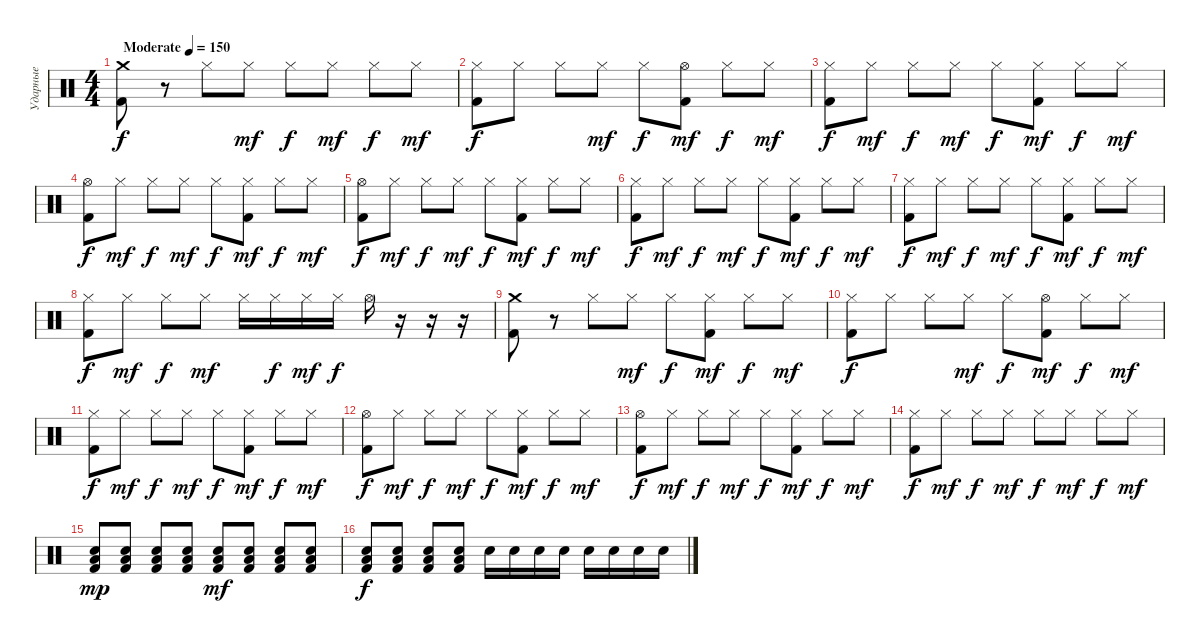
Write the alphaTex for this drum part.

\track ("Ударные" "Ударные") {instrument percussion}
\staff {score}
\articulation defaults
\ts (4 4)
\tempo (150 "Moderate")
\clef neutral
\ks c
("Crash medium (hit)" "Kick (hit) 2").8{dy f} r.8 "Hi-Hat (closed)".8 "Hi-Hat (closed)".8{dy mf} "Hi-Hat (closed)".8{dy f} "Hi-Hat (closed)".8{dy mf} "Hi-Hat (closed)".8{dy f} "Hi-Hat (closed)".8{dy mf} |
("Hi-Hat (closed)" "Kick (hit) 2").8{dy f} "Hi-Hat (closed)".8 "Hi-Hat (closed)".8 "Hi-Hat (closed)".8{dy mf} "Hi-Hat (closed)".8{dy f} ("Hi-Hat (open)" "Kick (hit) 2").8{dy mf} "Hi-Hat (closed)".8{dy f} "Hi-Hat (closed)".8{dy mf} |
("Hi-Hat (closed)" "Kick (hit) 2").8{dy f} "Hi-Hat (closed)".8{dy mf} "Hi-Hat (closed)".8{dy f} "Hi-Hat (closed)".8{dy mf} "Hi-Hat (closed)".8{dy f} ("Hi-Hat (closed)" "Kick (hit) 2").8{dy mf} "Hi-Hat (closed)".8{dy f} "Hi-Hat (closed)".8{dy mf} |
("Hi-Hat (open)" "Kick (hit) 2").8{dy f} "Hi-Hat (closed)".8{dy mf} "Hi-Hat (closed)".8{dy f} "Hi-Hat (closed)".8{dy mf} "Hi-Hat (closed)".8{dy f} ("Hi-Hat (closed)" "Kick (hit) 2").8{dy mf} "Hi-Hat (closed)".8{dy f} "Hi-Hat (closed)".8{dy mf} |
("Hi-Hat (open)" "Kick (hit) 2").8{dy f} "Hi-Hat (closed)".8{dy mf} "Hi-Hat (closed)".8{dy f} "Hi-Hat (closed)".8{dy mf} "Hi-Hat (closed)".8{dy f} ("Hi-Hat (closed)" "Kick (hit) 2").8{dy mf} "Hi-Hat (closed)".8{dy f} "Hi-Hat (closed)".8{dy mf} |
("Hi-Hat (closed)" "Kick (hit) 2").8{dy f} "Hi-Hat (closed)".8{dy mf} "Hi-Hat (closed)".8{dy f} "Hi-Hat (closed)".8{dy mf} "Hi-Hat (closed)".8{dy f} ("Hi-Hat (closed)" "Kick (hit) 2").8{dy mf} "Hi-Hat (closed)".8{dy f} "Hi-Hat (closed)".8{dy mf} |
("Hi-Hat (closed)" "Kick (hit) 2").8{dy f} "Hi-Hat (closed)".8{dy mf} "Hi-Hat (closed)".8{dy f} "Hi-Hat (closed)".8{dy mf} "Hi-Hat (closed)".8{dy f} ("Hi-Hat (closed)" "Kick (hit) 2").8{dy mf} "Hi-Hat (closed)".8{dy f} "Hi-Hat (closed)".8{dy mf} |
("Hi-Hat (closed)" "Kick (hit) 2").8{dy f} "Hi-Hat (closed)".8{dy mf} "Hi-Hat (closed)".8{dy f} "Hi-Hat (closed)".8{dy mf} "Hi-Hat (closed)".16 "Hi-Hat (closed)".16{dy f} "Hi-Hat (closed)".16{dy mf} "Hi-Hat (closed)".16{dy f} "Hi-Hat (open)".16 r.16 r.16 r.16 |
("Crash medium (hit)" "Kick (hit) 2").8 r.8 "Hi-Hat (closed)".8 "Hi-Hat (closed)".8{dy mf} "Hi-Hat (closed)".8{dy f} ("Hi-Hat (closed)" "Kick (hit) 2").8{dy mf} "Hi-Hat (closed)".8{dy f} "Hi-Hat (closed)".8{dy mf} |
("Hi-Hat (closed)" "Kick (hit) 2").8{dy f} "Hi-Hat (closed)".8 "Hi-Hat (closed)".8 "Hi-Hat (closed)".8{dy mf} "Hi-Hat (closed)".8{dy f} ("Hi-Hat (open)" "Kick (hit) 2").8{dy mf} "Hi-Hat (closed)".8{dy f} "Hi-Hat (closed)".8{dy mf} |
("Hi-Hat (closed)" "Kick (hit) 2").8{dy f} "Hi-Hat (closed)".8{dy mf} "Hi-Hat (closed)".8{dy f} "Hi-Hat (closed)".8{dy mf} "Hi-Hat (closed)".8{dy f} ("Hi-Hat (closed)" "Kick (hit) 2").8{dy mf} "Hi-Hat (closed)".8{dy f} "Hi-Hat (closed)".8{dy mf} |
("Hi-Hat (open)" "Kick (hit) 2").8{dy f} "Hi-Hat (closed)".8{dy mf} "Hi-Hat (closed)".8{dy f} "Hi-Hat (closed)".8{dy mf} "Hi-Hat (closed)".8{dy f} ("Hi-Hat (closed)" "Kick (hit) 2").8{dy mf} "Hi-Hat (closed)".8{dy f} "Hi-Hat (closed)".8{dy mf} |
("Hi-Hat (open)" "Kick (hit) 2").8{dy f} "Hi-Hat (closed)".8{dy mf} "Hi-Hat (closed)".8{dy f} "Hi-Hat (closed)".8{dy mf} "Hi-Hat (closed)".8{dy f} ("Hi-Hat (closed)" "Kick (hit) 2").8{dy mf} "Hi-Hat (closed)".8{dy f} "Hi-Hat (closed)".8{dy mf} |
("Hi-Hat (closed)" "Kick (hit) 2").8{dy f} "Hi-Hat (closed)".8{dy mf} "Hi-Hat (closed)".8{dy f} "Hi-Hat (closed)".8{dy mf} "Hi-Hat (closed)".8{dy f} "Hi-Hat (closed)".8{dy mf} "Hi-Hat (closed)".8{dy f} "Hi-Hat (closed)".8{dy mf} |
("Low Tom (hit)" "Electric Snare (hit)" "Kick (hit) 2").8{dy mp} ("Low Tom (hit)" "Electric Snare (hit)" "Kick (hit) 2").8 ("Low Tom (hit)" "Electric Snare (hit)" "Kick (hit) 2").8 ("Low Tom (hit)" "Electric Snare (hit)" "Kick (hit) 2").8 ("Low Tom (hit)" "Electric Snare (hit)" "Kick (hit) 2").8{dy mf} ("Low Tom (hit)" "Electric Snare (hit)" "Kick (hit) 2").8 ("Low Tom (hit)" "Electric Snare (hit)" "Kick (hit) 2").8 ("Low Tom (hit)" "Electric Snare (hit)" "Kick (hit) 2").8 |
("Low Tom (hit)" "Electric Snare (hit)" "Kick (hit) 2").8{dy f} ("Low Tom (hit)" "Electric Snare (hit)" "Kick (hit) 2").8 ("Low Tom (hit)" "Electric Snare (hit)" "Kick (hit) 2").8 ("Low Tom (hit)" "Electric Snare (hit)" "Kick (hit) 2").8 "Electric Snare (hit)".16 "Electric Snare (hit)".16 "Electric Snare (hit)".16 "Electric Snare (hit)".16 "Electric Snare (hit)".16 "Electric Snare (hit)".16 "Electric Snare (hit)".16 "Electric Snare (hit)".16
